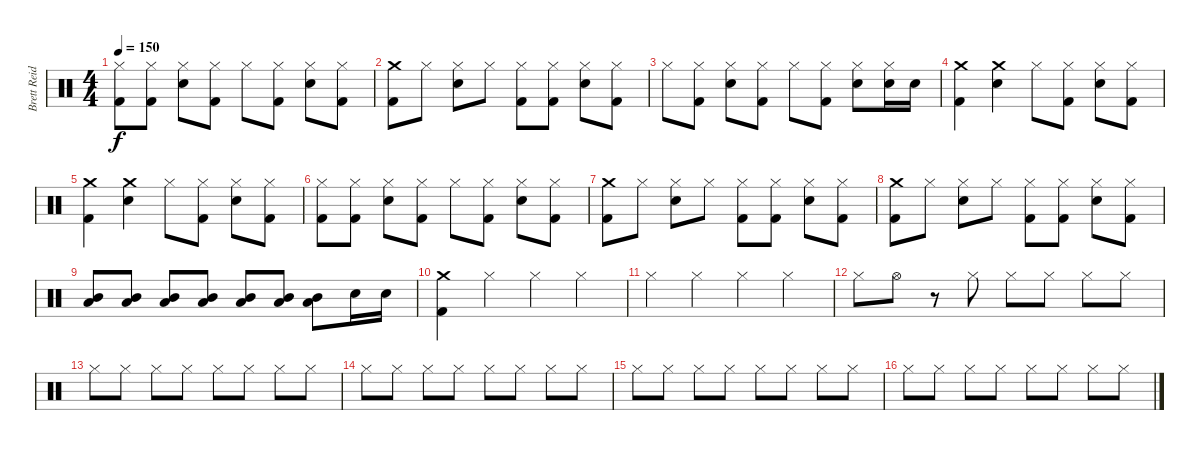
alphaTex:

\track ("Brett Reid" "Brett Reid") {instrument percussion}
\staff {score}
\articulation defaults
\ts (4 4)
\tempo 150
\clef neutral
\ks c
("Hi-Hat (closed)" "Kick (hit) 2").8{dy f} ("Hi-Hat (closed)" "Kick (hit) 2").8 ("Hi-Hat (closed)" "Snare (hit) 2").8 ("Hi-Hat (closed)" "Kick (hit) 2").8 "Hi-Hat (closed)".8 ("Hi-Hat (closed)" "Kick (hit) 2").8 ("Hi-Hat (closed)" "Snare (hit) 2").8 ("Hi-Hat (closed)" "Kick (hit) 2").8 |
("Crash medium (hit)" "Kick (hit) 2").8 "Hi-Hat (closed)".8 ("Hi-Hat (closed)" "Snare (hit) 2").8 "Hi-Hat (closed)".8 ("Hi-Hat (closed)" "Kick (hit) 2").8 ("Hi-Hat (closed)" "Kick (hit) 2").8 ("Hi-Hat (closed)" "Snare (hit) 2").8 ("Hi-Hat (closed)" "Kick (hit) 2").8 |
"Hi-Hat (closed)".8 ("Hi-Hat (closed)" "Kick (hit) 2").8 ("Hi-Hat (closed)" "Snare (hit) 2").8 ("Hi-Hat (closed)" "Kick (hit) 2").8 "Hi-Hat (closed)".8 ("Hi-Hat (closed)" "Kick (hit) 2").8 ("Hi-Hat (closed)" "Snare (hit) 2").8 ("Hi-Hat (closed)" "Snare (hit) 2").16 "Snare (hit) 2".16 |
("Crash medium (hit)" "Kick (hit) 2").4 ("Crash medium (hit)" "Snare (hit) 2").4 "Hi-Hat (closed)".8 ("Hi-Hat (closed)" "Kick (hit) 2").8 ("Hi-Hat (closed)" "Snare (hit) 2").8 ("Hi-Hat (closed)" "Kick (hit) 2").8 |
("Crash medium (hit)" "Kick (hit) 2").4 ("Crash medium (hit)" "Snare (hit) 2").4 "Hi-Hat (closed)".8 ("Hi-Hat (closed)" "Kick (hit) 2").8 ("Hi-Hat (closed)" "Snare (hit) 2").8 ("Hi-Hat (closed)" "Kick (hit) 2").8 |
("Hi-Hat (closed)" "Kick (hit) 2").8 ("Hi-Hat (closed)" "Kick (hit) 2").8 ("Hi-Hat (closed)" "Snare (hit) 2").8 ("Hi-Hat (closed)" "Kick (hit) 2").8 "Hi-Hat (closed)".8 ("Hi-Hat (closed)" "Kick (hit) 2").8 ("Hi-Hat (closed)" "Snare (hit) 2").8 ("Hi-Hat (closed)" "Kick (hit) 2").8 |
("Crash medium (hit)" "Kick (hit) 2").8 "Hi-Hat (closed)".8 ("Hi-Hat (closed)" "Snare (hit) 2").8 "Hi-Hat (closed)".8 ("Hi-Hat (closed)" "Kick (hit) 2").8 ("Hi-Hat (closed)" "Kick (hit) 2").8 ("Hi-Hat (closed)" "Snare (hit) 2").8 ("Hi-Hat (closed)" "Kick (hit) 2").8 |
("Crash medium (hit)" "Kick (hit) 2").8 "Hi-Hat (closed)".8 ("Hi-Hat (closed)" "Snare (hit) 2").8 "Hi-Hat (closed)".8 ("Hi-Hat (closed)" "Kick (hit) 2").8 ("Hi-Hat (closed)" "Kick (hit) 2").8 ("Hi-Hat (closed)" "Snare (hit) 2").8 ("Hi-Hat (closed)" "Kick (hit) 2").8 |
("Mid Tom (hit)" "Low Floor Tom (hit)").8 ("Mid Tom (hit)" "Low Floor Tom (hit)").8 ("Mid Tom (hit)" "Low Floor Tom (hit)").8 ("Mid Tom (hit)" "Low Floor Tom (hit)").8 ("Mid Tom (hit)" "Low Floor Tom (hit)").8 ("Mid Tom (hit)" "Low Floor Tom (hit)").8 ("Mid Tom (hit)" "Low Floor Tom (hit)").8 "Snare (hit) 2".16 "Snare (hit) 2".16 |
("Crash medium (hit)" "Kick (hit) 2").4 "Hi-Hat (closed)".4 "Hi-Hat (closed)".4 "Hi-Hat (closed)".4 |
"Hi-Hat (closed)".4 "Hi-Hat (closed)".4 "Hi-Hat (closed)".4 "Hi-Hat (closed)".4 |
"Hi-Hat (closed)".8 "Hi-Hat (open)".8 r.8 "Hi-Hat (closed)".8 "Hi-Hat (closed)".8 "Hi-Hat (closed)".8 "Hi-Hat (closed)".8 "Hi-Hat (closed)".8 |
"Hi-Hat (closed)".8 "Hi-Hat (closed)".8 "Hi-Hat (closed)".8 "Hi-Hat (closed)".8 "Hi-Hat (closed)".8 "Hi-Hat (closed)".8 "Hi-Hat (closed)".8 "Hi-Hat (closed)".8 |
"Hi-Hat (closed)".8 "Hi-Hat (closed)".8 "Hi-Hat (closed)".8 "Hi-Hat (closed)".8 "Hi-Hat (closed)".8 "Hi-Hat (closed)".8 "Hi-Hat (closed)".8 "Hi-Hat (closed)".8 |
"Hi-Hat (closed)".8 "Hi-Hat (closed)".8 "Hi-Hat (closed)".8 "Hi-Hat (closed)".8 "Hi-Hat (closed)".8 "Hi-Hat (closed)".8 "Hi-Hat (closed)".8 "Hi-Hat (closed)".8 |
"Hi-Hat (closed)".8 "Hi-Hat (closed)".8 "Hi-Hat (closed)".8 "Hi-Hat (closed)".8 "Hi-Hat (closed)".8 "Hi-Hat (closed)".8 "Hi-Hat (closed)".8 "Hi-Hat (closed)".8
